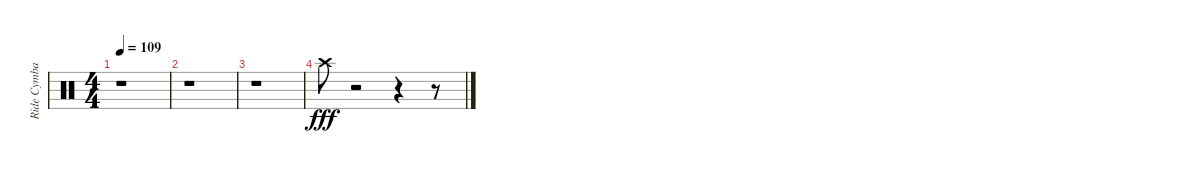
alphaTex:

\track ("Ride Cymbal     " "Ride Cymba") {instrument percussion}
\staff {score}
\articulation defaults
\ts (4 4)
\tempo 109
\clef neutral
\ks c
r.1{dy fff} |
r.1 |
r.1 |
"Crash high (hit)".8 r.2 r.4 r.8
